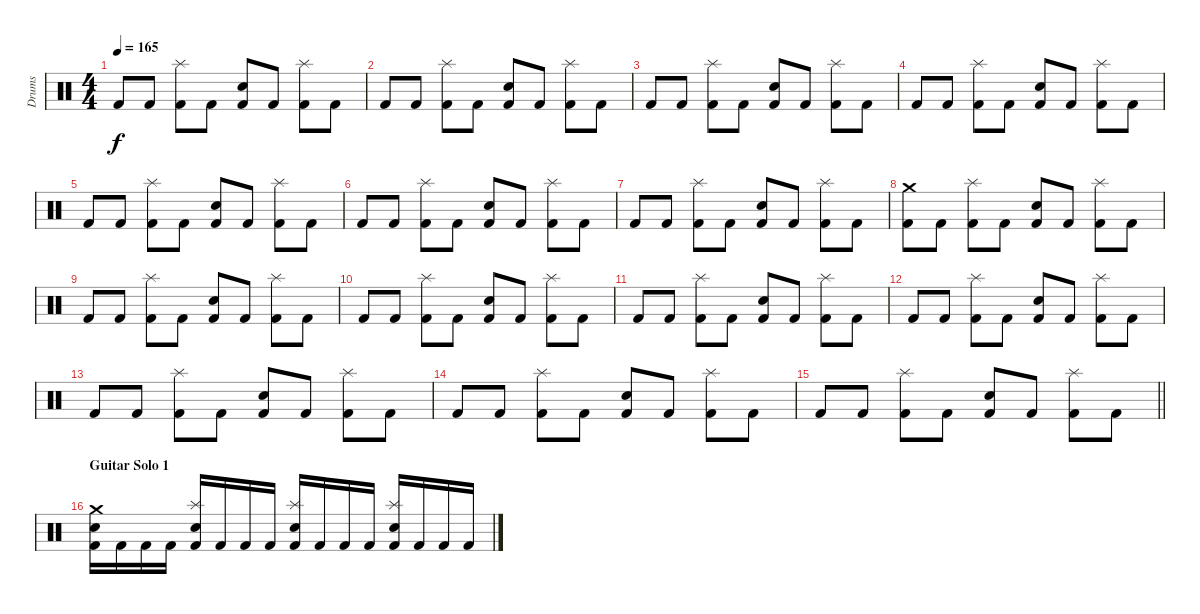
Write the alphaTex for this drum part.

\track ("Drums" "Drums") {instrument percussion}
\staff {score}
\articulation defaults
\ts (4 4)
\tempo 165
\clef neutral
\ks c "Kick (hit) 2".8{dy f} "Kick (hit) 2".8
("Splash (hit)" "Kick (hit) 2").8 "Kick (hit) 2".8 ("Snare (hit) 2" "Kick (hit) 2").8 "Kick (hit) 2".8 ("Splash (hit)" "Kick (hit) 2").8 "Kick (hit) 2".8 |
"Kick (hit) 2".8 "Kick (hit) 2".8 ("Splash (hit)" "Kick (hit) 2").8 "Kick (hit) 2".8 ("Snare (hit) 2" "Kick (hit) 2").8 "Kick (hit) 2".8 ("Splash (hit)" "Kick (hit) 2").8 "Kick (hit) 2".8 |
"Kick (hit) 2".8 "Kick (hit) 2".8 ("Splash (hit)" "Kick (hit) 2").8 "Kick (hit) 2".8 ("Snare (hit) 2" "Kick (hit) 2").8 "Kick (hit) 2".8 ("Splash (hit)" "Kick (hit) 2").8 "Kick (hit) 2".8 |
"Kick (hit) 2".8 "Kick (hit) 2".8 ("Splash (hit)" "Kick (hit) 2").8 "Kick (hit) 2".8 ("Snare (hit) 2" "Kick (hit) 2").8 "Kick (hit) 2".8 ("Splash (hit)" "Kick (hit) 2").8 "Kick (hit) 2".8 |
"Kick (hit) 2".8 "Kick (hit) 2".8 ("Splash (hit)" "Kick (hit) 2").8 "Kick (hit) 2".8 ("Snare (hit) 2" "Kick (hit) 2").8 "Kick (hit) 2".8 ("Splash (hit)" "Kick (hit) 2").8 "Kick (hit) 2".8 |
"Kick (hit) 2".8 "Kick (hit) 2".8 ("Splash (hit)" "Kick (hit) 2").8 "Kick (hit) 2".8 ("Snare (hit) 2" "Kick (hit) 2").8 "Kick (hit) 2".8 ("Splash (hit)" "Kick (hit) 2").8 "Kick (hit) 2".8 |
"Kick (hit) 2".8 "Kick (hit) 2".8 ("Splash (hit)" "Kick (hit) 2").8 "Kick (hit) 2".8 ("Snare (hit) 2" "Kick (hit) 2").8 "Kick (hit) 2".8 ("Splash (hit)" "Kick (hit) 2").8 "Kick (hit) 2".8 |
("Crash medium (hit)" "Kick (hit) 2").8 "Kick (hit) 2".8 ("Splash (hit)" "Kick (hit) 2").8 "Kick (hit) 2".8 ("Snare (hit) 2" "Kick (hit) 2").8 "Kick (hit) 2".8 ("Splash (hit)" "Kick (hit) 2").8 "Kick (hit) 2".8 |
"Kick (hit) 2".8 "Kick (hit) 2".8 ("Splash (hit)" "Kick (hit) 2").8 "Kick (hit) 2".8 ("Snare (hit) 2" "Kick (hit) 2").8 "Kick (hit) 2".8 ("Splash (hit)" "Kick (hit) 2").8 "Kick (hit) 2".8 |
"Kick (hit) 2".8 "Kick (hit) 2".8 ("Splash (hit)" "Kick (hit) 2").8 "Kick (hit) 2".8 ("Snare (hit) 2" "Kick (hit) 2").8 "Kick (hit) 2".8 ("Splash (hit)" "Kick (hit) 2").8 "Kick (hit) 2".8 |
"Kick (hit) 2".8 "Kick (hit) 2".8 ("Splash (hit)" "Kick (hit) 2").8 "Kick (hit) 2".8 ("Snare (hit) 2" "Kick (hit) 2").8 "Kick (hit) 2".8 ("Splash (hit)" "Kick (hit) 2").8 "Kick (hit) 2".8 |
"Kick (hit) 2".8 "Kick (hit) 2".8 ("Splash (hit)" "Kick (hit) 2").8 "Kick (hit) 2".8 ("Snare (hit) 2" "Kick (hit) 2").8 "Kick (hit) 2".8 ("Splash (hit)" "Kick (hit) 2").8 "Kick (hit) 2".8 |
"Kick (hit) 2".8 "Kick (hit) 2".8 ("Splash (hit)" "Kick (hit) 2").8 "Kick (hit) 2".8 ("Snare (hit) 2" "Kick (hit) 2").8 "Kick (hit) 2".8 ("Splash (hit)" "Kick (hit) 2").8 "Kick (hit) 2".8 |
"Kick (hit) 2".8 "Kick (hit) 2".8 ("Splash (hit)" "Kick (hit) 2").8 "Kick (hit) 2".8 ("Snare (hit) 2" "Kick (hit) 2").8 "Kick (hit) 2".8 ("Splash (hit)" "Kick (hit) 2").8 "Kick (hit) 2".8 |
\barLineRight lightlight "Kick (hit) 2".8 "Kick (hit) 2".8
("Splash (hit)" "Kick (hit) 2").8 "Kick (hit) 2".8 ("Snare (hit) 2" "Kick (hit) 2").8 "Kick (hit) 2".8 ("Splash (hit)" "Kick (hit) 2").8 "Kick (hit) 2".8 |
\section ("" "Guitar Solo 1")
("Crash medium (hit)" "Snare (hit) 2" "Kick (hit) 2").16 "Kick (hit) 2".16 "Kick (hit) 2".16 "Kick (hit) 2".16 ("Splash (hit)" "Snare (hit) 2" "Kick (hit) 2").16 "Kick (hit) 2".16 "Kick (hit) 2".16 "Kick (hit) 2".16 ("Splash (hit)" "Snare (hit) 2" "Kick (hit) 2").16 "Kick (hit) 2".16 "Kick (hit) 2".16 "Kick (hit) 2".16 ("Splash (hit)" "Snare (hit) 2" "Kick (hit) 2").16 "Kick (hit) 2".16 "Kick (hit) 2".16 "Kick (hit) 2".16
